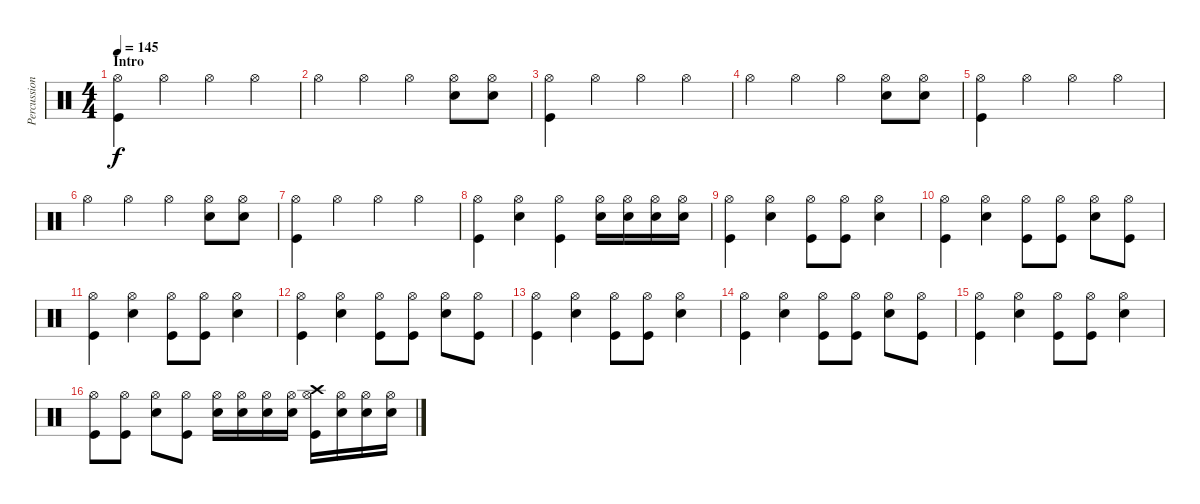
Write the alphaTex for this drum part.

\track ("Percussion" "Percussion") {instrument percussion}
\staff {score}
\articulation defaults
\ts (4 4)
\section ("" "Intro")
\tempo 145
\clef neutral
\ks c
("Hi-Hat (open)" "Kick (hit)").4{dy f} "Hi-Hat (open)".4 "Hi-Hat (open)".4 "Hi-Hat (open)".4 |
"Hi-Hat (open)".4 "Hi-Hat (open)".4 "Hi-Hat (open)".4 ("Hi-Hat (open)" "Snare (hit) 2").8 ("Hi-Hat (open)" "Snare (hit) 2").8 |
("Hi-Hat (open)" "Kick (hit)").4 "Hi-Hat (open)".4 "Hi-Hat (open)".4 "Hi-Hat (open)".4 |
"Hi-Hat (open)".4 "Hi-Hat (open)".4 "Hi-Hat (open)".4 ("Hi-Hat (open)" "Snare (hit) 2").8 ("Hi-Hat (open)" "Snare (hit) 2").8 |
("Hi-Hat (open)" "Kick (hit)").4 "Hi-Hat (open)".4 "Hi-Hat (open)".4 "Hi-Hat (open)".4 |
"Hi-Hat (open)".4 "Hi-Hat (open)".4 "Hi-Hat (open)".4 ("Hi-Hat (open)" "Snare (hit) 2").8 ("Hi-Hat (open)" "Snare (hit) 2").8 |
("Hi-Hat (open)" "Kick (hit)").4 "Hi-Hat (open)".4 "Hi-Hat (open)".4 "Hi-Hat (open)".4 |
("Hi-Hat (open)" "Kick (hit)").4 ("Hi-Hat (open)" "Snare (hit) 2").4 ("Hi-Hat (open)" "Kick (hit)").4 ("Hi-Hat (open)" "Snare (hit) 2").16 ("Hi-Hat (open)" "Snare (hit) 2").16 ("Hi-Hat (open)" "Snare (hit) 2").16 ("Hi-Hat (open)" "Snare (hit) 2").16 |
("Hi-Hat (open)" "Kick (hit)").4 ("Hi-Hat (open)" "Snare (hit) 2").4 ("Hi-Hat (open)" "Kick (hit)").8 ("Hi-Hat (open)" "Kick (hit)").8 ("Hi-Hat (open)" "Snare (hit) 2").4 |
("Hi-Hat (open)" "Kick (hit)").4 ("Hi-Hat (open)" "Snare (hit) 2").4 ("Hi-Hat (open)" "Kick (hit)").8 ("Hi-Hat (open)" "Kick (hit)").8 ("Hi-Hat (open)" "Snare (hit) 2").8 ("Hi-Hat (open)" "Kick (hit)").8 |
("Hi-Hat (open)" "Kick (hit)").4 ("Hi-Hat (open)" "Snare (hit) 2").4 ("Hi-Hat (open)" "Kick (hit)").8 ("Hi-Hat (open)" "Kick (hit)").8 ("Hi-Hat (open)" "Snare (hit) 2").4 |
("Hi-Hat (open)" "Kick (hit)").4 ("Hi-Hat (open)" "Snare (hit) 2").4 ("Hi-Hat (open)" "Kick (hit)").8 ("Hi-Hat (open)" "Kick (hit)").8 ("Hi-Hat (open)" "Snare (hit) 2").8 ("Hi-Hat (open)" "Kick (hit)").8 |
("Hi-Hat (open)" "Kick (hit)").4 ("Hi-Hat (open)" "Snare (hit) 2").4 ("Hi-Hat (open)" "Kick (hit)").8 ("Hi-Hat (open)" "Kick (hit)").8 ("Hi-Hat (open)" "Snare (hit) 2").4 |
("Hi-Hat (open)" "Kick (hit)").4 ("Hi-Hat (open)" "Snare (hit) 2").4 ("Hi-Hat (open)" "Kick (hit)").8 ("Hi-Hat (open)" "Kick (hit)").8 ("Hi-Hat (open)" "Snare (hit) 2").8 ("Hi-Hat (open)" "Kick (hit)").8 |
("Hi-Hat (open)" "Kick (hit)").4 ("Hi-Hat (open)" "Snare (hit) 2").4 ("Hi-Hat (open)" "Kick (hit)").8 ("Hi-Hat (open)" "Kick (hit)").8 ("Hi-Hat (open)" "Snare (hit) 2").4 |
("Hi-Hat (open)" "Kick (hit)").8 ("Hi-Hat (open)" "Kick (hit)").8 ("Hi-Hat (open)" "Snare (hit) 2").8 ("Hi-Hat (open)" "Kick (hit)").8 ("Hi-Hat (open)" "Snare (hit) 2").16 ("Hi-Hat (open)" "Snare (hit) 2").16 ("Hi-Hat (open)" "Snare (hit) 2").16 ("Hi-Hat (open)" "Snare (hit) 2").16 ("Hi-Hat (open)" "Crash high (hit)" "Kick (hit)").16 ("Hi-Hat (open)" "Snare (hit) 2").16 ("Hi-Hat (open)" "Snare (hit) 2").16 ("Hi-Hat (open)" "Snare (hit) 2").16
